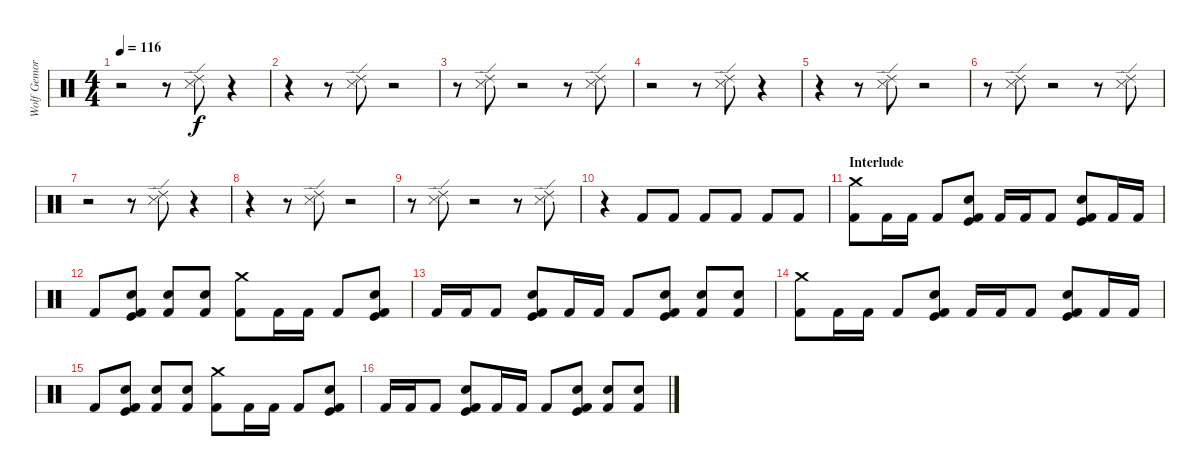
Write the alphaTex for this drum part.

\track ("Wolf Gemora" "Wolf Gemor") {instrument percussion}
\staff {score}
\articulation defaults
\ts (4 4)
\tempo 116
\clef neutral
\ks c
r.2{dy f} r.8 ("Snare (side stick) 3" "Ride (edge) 2").8 r.4 |
r.4 r.8 ("Snare (side stick) 3" "Ride (edge) 2").8 r.2 |
r.8 ("Snare (side stick) 3" "Ride (edge) 2").8 r.2 r.8 ("Snare (side stick) 3" "Ride (edge) 2").8 |
r.2 r.8 ("Snare (side stick) 3" "Ride (edge) 2").8 r.4 |
r.4 r.8 ("Snare (side stick) 3" "Ride (edge) 2").8 r.2 |
r.8 ("Snare (side stick) 3" "Ride (edge) 2").8 r.2 r.8 ("Snare (side stick) 3" "Ride (edge) 2").8 |
r.2 r.8 ("Snare (side stick) 3" "Ride (edge) 2").8 r.4 |
r.4 r.8 ("Snare (side stick) 3" "Ride (edge) 2").8 r.2 |
r.8 ("Snare (side stick) 3" "Ride (edge) 2").8 r.2 r.8 ("Snare (side stick) 3" "Ride (edge) 2").8 |
r.4{balance 8} "Kick (hit) 2".8 "Kick (hit) 2".8 "Kick (hit) 2".8 "Kick (hit) 2".8 "Kick (hit) 2".8 "Kick (hit) 2".8 |
\section ("" "Interlude")
("Crash medium (hit)" "Kick (hit) 2").8{balance 10} "Kick (hit) 2".16 "Kick (hit) 2".16 "Kick (hit) 2".8 ("Snare (hit) 2" "Kick (hit)" "Kick (hit) 2").8 "Kick (hit) 2".16 "Kick (hit) 2".16 "Kick (hit) 2".8 ("Snare (hit) 2" "Kick (hit)" "Kick (hit) 2").8 "Kick (hit) 2".16 "Kick (hit) 2".16 |
"Kick (hit) 2".8 ("Snare (hit) 2" "Kick (hit)" "Kick (hit) 2").8 ("Snare (hit) 2" "Kick (hit) 2").8 ("Snare (hit) 2" "Kick (hit) 2").8 ("Crash medium (hit)" "Kick (hit) 2").8 "Kick (hit) 2".16 "Kick (hit) 2".16 "Kick (hit) 2".8 ("Snare (hit) 2" "Kick (hit)" "Kick (hit) 2").8 |
"Kick (hit) 2".16 "Kick (hit) 2".16 "Kick (hit) 2".8 ("Snare (hit) 2" "Kick (hit)" "Kick (hit) 2").8 "Kick (hit) 2".16 "Kick (hit) 2".16 "Kick (hit) 2".8 ("Snare (hit) 2" "Kick (hit)" "Kick (hit) 2").8 ("Snare (hit) 2" "Kick (hit) 2").8 ("Snare (hit) 2" "Kick (hit) 2").8 |
("Crash medium (hit)" "Kick (hit) 2").8 "Kick (hit) 2".16 "Kick (hit) 2".16 "Kick (hit) 2".8 ("Snare (hit) 2" "Kick (hit)" "Kick (hit) 2").8 "Kick (hit) 2".16 "Kick (hit) 2".16 "Kick (hit) 2".8 ("Snare (hit) 2" "Kick (hit)" "Kick (hit) 2").8 "Kick (hit) 2".16 "Kick (hit) 2".16 |
"Kick (hit) 2".8 ("Snare (hit) 2" "Kick (hit)" "Kick (hit) 2").8 ("Snare (hit) 2" "Kick (hit) 2").8 ("Snare (hit) 2" "Kick (hit) 2").8 ("Crash medium (hit)" "Kick (hit) 2").8 "Kick (hit) 2".16 "Kick (hit) 2".16 "Kick (hit) 2".8 ("Snare (hit) 2" "Kick (hit)" "Kick (hit) 2").8 |
"Kick (hit) 2".16 "Kick (hit) 2".16 "Kick (hit) 2".8 ("Snare (hit) 2" "Kick (hit)" "Kick (hit) 2").8 "Kick (hit) 2".16 "Kick (hit) 2".16 "Kick (hit) 2".8 ("Snare (hit) 2" "Kick (hit)" "Kick (hit) 2").8 ("Snare (hit) 2" "Kick (hit) 2").8 ("Snare (hit) 2" "Kick (hit) 2").8
